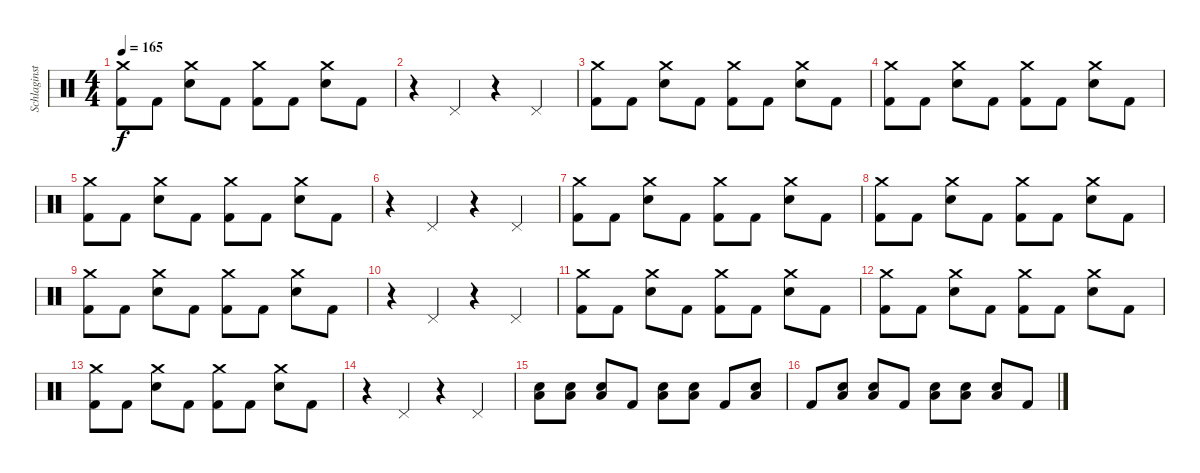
\track ("Schlaginstrumente - Auswahl" "Schlaginst") {instrument percussion}
\staff {score}
\articulation defaults
\ts (4 4)
\tempo 165
\clef neutral
\ks c
("Crash medium (hit)" "Kick (hit) 2").8{dy f} "Kick (hit) 2".8 ("Crash medium (hit)" "Snare (hit) 2").8 "Kick (hit) 2".8 ("Crash medium (hit)" "Kick (hit) 2").8 "Kick (hit) 2".8 ("Crash medium (hit)" "Snare (hit) 2").8 "Kick (hit) 2".8 |
r.4 "Pedal Hi-Hat (hit)".4 r.4 "Pedal Hi-Hat (hit)".4 |
("Crash medium (hit)" "Kick (hit) 2").8 "Kick (hit) 2".8 ("Crash medium (hit)" "Snare (hit) 2").8 "Kick (hit) 2".8 ("Crash medium (hit)" "Kick (hit) 2").8 "Kick (hit) 2".8 ("Crash medium (hit)" "Snare (hit) 2").8 "Kick (hit) 2".8 |
("Crash medium (hit)" "Kick (hit) 2").8 "Kick (hit) 2".8 ("Crash medium (hit)" "Snare (hit) 2").8 "Kick (hit) 2".8 ("Crash medium (hit)" "Kick (hit) 2").8 "Kick (hit) 2".8 ("Crash medium (hit)" "Snare (hit) 2").8 "Kick (hit) 2".8 |
("Crash medium (hit)" "Kick (hit) 2").8 "Kick (hit) 2".8 ("Crash medium (hit)" "Snare (hit) 2").8 "Kick (hit) 2".8 ("Crash medium (hit)" "Kick (hit) 2").8 "Kick (hit) 2".8 ("Crash medium (hit)" "Snare (hit) 2").8 "Kick (hit) 2".8 |
r.4 "Pedal Hi-Hat (hit)".4 r.4 "Pedal Hi-Hat (hit)".4 |
("Crash medium (hit)" "Kick (hit) 2").8 "Kick (hit) 2".8 ("Crash medium (hit)" "Snare (hit) 2").8 "Kick (hit) 2".8 ("Crash medium (hit)" "Kick (hit) 2").8 "Kick (hit) 2".8 ("Crash medium (hit)" "Snare (hit) 2").8 "Kick (hit) 2".8 |
("Crash medium (hit)" "Kick (hit) 2").8 "Kick (hit) 2".8 ("Crash medium (hit)" "Snare (hit) 2").8 "Kick (hit) 2".8 ("Crash medium (hit)" "Kick (hit) 2").8 "Kick (hit) 2".8 ("Crash medium (hit)" "Snare (hit) 2").8 "Kick (hit) 2".8 |
("Crash medium (hit)" "Kick (hit) 2").8 "Kick (hit) 2".8 ("Crash medium (hit)" "Snare (hit) 2").8 "Kick (hit) 2".8 ("Crash medium (hit)" "Kick (hit) 2").8 "Kick (hit) 2".8 ("Crash medium (hit)" "Snare (hit) 2").8 "Kick (hit) 2".8 |
r.4 "Pedal Hi-Hat (hit)".4 r.4 "Pedal Hi-Hat (hit)".4 |
("Crash medium (hit)" "Kick (hit) 2").8 "Kick (hit) 2".8 ("Crash medium (hit)" "Snare (hit) 2").8 "Kick (hit) 2".8 ("Crash medium (hit)" "Kick (hit) 2").8 "Kick (hit) 2".8 ("Crash medium (hit)" "Snare (hit) 2").8 "Kick (hit) 2".8 |
("Crash medium (hit)" "Kick (hit) 2").8 "Kick (hit) 2".8 ("Crash medium (hit)" "Snare (hit) 2").8 "Kick (hit) 2".8 ("Crash medium (hit)" "Kick (hit) 2").8 "Kick (hit) 2".8 ("Crash medium (hit)" "Snare (hit) 2").8 "Kick (hit) 2".8 |
("Crash medium (hit)" "Kick (hit) 2").8 "Kick (hit) 2".8 ("Crash medium (hit)" "Snare (hit) 2").8 "Kick (hit) 2".8 ("Crash medium (hit)" "Kick (hit) 2").8 "Kick (hit) 2".8 ("Crash medium (hit)" "Snare (hit) 2").8 "Kick (hit) 2".8 |
r.4 "Pedal Hi-Hat (hit)".4 r.4 "Pedal Hi-Hat (hit)".4 |
("Low Floor Tom (hit)" "Snare (hit) 2").8 ("Low Floor Tom (hit)" "Snare (hit) 2").8 ("Low Floor Tom (hit)" "Snare (hit) 2").8 "Kick (hit) 2".8 ("Low Floor Tom (hit)" "Snare (hit) 2").8 ("Low Floor Tom (hit)" "Snare (hit) 2").8 "Kick (hit) 2".8 ("Low Floor Tom (hit)" "Snare (hit) 2").8 |
"Kick (hit) 2".8 ("Low Floor Tom (hit)" "Snare (hit) 2").8 ("Low Floor Tom (hit)" "Snare (hit) 2").8 "Kick (hit) 2".8 ("Low Floor Tom (hit)" "Snare (hit) 2").8 ("Low Floor Tom (hit)" "Snare (hit) 2").8 ("Low Floor Tom (hit)" "Snare (hit) 2").8 "Kick (hit) 2".8
